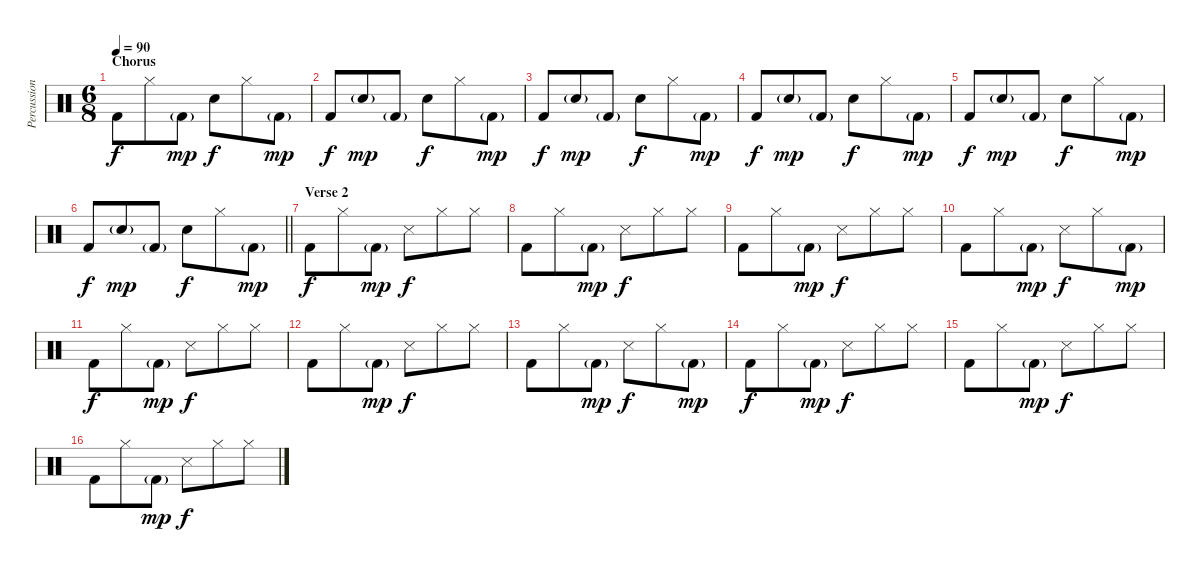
\track ("Percussion" "Percussion") {instrument percussion}
\staff {score}
\articulation defaults
\ts (6 8)
\section ("" "Chorus")
\tempo 90
\clef neutral
\ks c "Kick (hit) 2".8{dy f} "Hi-Hat (closed)".8 "Kick (hit) 2"{g}.8{dy mp} "Snare (hit) 2".8{dy f} "Hi-Hat (closed)".8 "Kick (hit) 2"{g}.8{dy mp}
|
"Kick (hit) 2".8{dy f} "Snare (hit) 2"{g}.8{dy mp} "Kick (hit) 2"{g}.8 "Snare (hit) 2".8{dy f} "Hi-Hat (closed)".8 "Kick (hit) 2"{g}.8{dy mp} |
"Kick (hit) 2".8{dy f} "Snare (hit) 2"{g}.8{dy mp} "Kick (hit) 2"{g}.8 "Snare (hit) 2".8{dy f} "Hi-Hat (closed)".8 "Kick (hit) 2"{g}.8{dy mp} |
"Kick (hit) 2".8{dy f} "Snare (hit) 2"{g}.8{dy mp} "Kick (hit) 2"{g}.8 "Snare (hit) 2".8{dy f} "Hi-Hat (closed)".8 "Kick (hit) 2"{g}.8{dy mp} |
"Kick (hit) 2".8{dy f} "Snare (hit) 2"{g}.8{dy mp} "Kick (hit) 2"{g}.8 "Snare (hit) 2".8{dy f} "Hi-Hat (closed)".8 "Kick (hit) 2"{g}.8{dy mp} |
\barLineRight lightlight "Kick (hit) 2".8{dy f} "Snare (hit) 2"{g}.8{dy mp} "Kick (hit) 2"{g}.8 "Snare (hit) 2".8{dy f} "Hi-Hat (closed)".8 "Kick (hit) 2"{g}.8{dy mp}
|
\section ("" "Verse 2")
"Kick (hit) 2".8{dy f} "Hi-Hat (closed)".8 "Kick (hit) 2"{g}.8{dy mp} "Snare (side stick) 3".8{dy f} "Hi-Hat (closed)".8 "Hi-Hat (closed)".8 |
"Kick (hit) 2".8 "Hi-Hat (closed)".8 "Kick (hit) 2"{g}.8{dy mp} "Snare (side stick) 3".8{dy f} "Hi-Hat (closed)".8 "Hi-Hat (closed)".8 |
"Kick (hit) 2".8 "Hi-Hat (closed)".8 "Kick (hit) 2"{g}.8{dy mp} "Snare (side stick) 3".8{dy f} "Hi-Hat (closed)".8 "Hi-Hat (closed)".8 |
"Kick (hit) 2".8 "Hi-Hat (closed)".8 "Kick (hit) 2"{g}.8{dy mp} "Snare (side stick) 3".8{dy f} "Hi-Hat (closed)".8 "Kick (hit) 2"{g}.8{dy mp} |
"Kick (hit) 2".8{dy f} "Hi-Hat (closed)".8 "Kick (hit) 2"{g}.8{dy mp} "Snare (side stick) 3".8{dy f} "Hi-Hat (closed)".8 "Hi-Hat (closed)".8 |
"Kick (hit) 2".8 "Hi-Hat (closed)".8 "Kick (hit) 2"{g}.8{dy mp} "Snare (side stick) 3".8{dy f} "Hi-Hat (closed)".8 "Hi-Hat (closed)".8 |
"Kick (hit) 2".8 "Hi-Hat (closed)".8 "Kick (hit) 2"{g}.8{dy mp} "Snare (side stick) 3".8{dy f} "Hi-Hat (closed)".8 "Kick (hit) 2"{g}.8{dy mp} |
"Kick (hit) 2".8{dy f} "Hi-Hat (closed)".8 "Kick (hit) 2"{g}.8{dy mp} "Snare (side stick) 3".8{dy f} "Hi-Hat (closed)".8 "Hi-Hat (closed)".8 |
"Kick (hit) 2".8 "Hi-Hat (closed)".8 "Kick (hit) 2"{g}.8{dy mp} "Snare (side stick) 3".8{dy f} "Hi-Hat (closed)".8 "Hi-Hat (closed)".8 |
"Kick (hit) 2".8 "Hi-Hat (closed)".8 "Kick (hit) 2"{g}.8{dy mp} "Snare (side stick) 3".8{dy f} "Hi-Hat (closed)".8 "Hi-Hat (closed)".8
